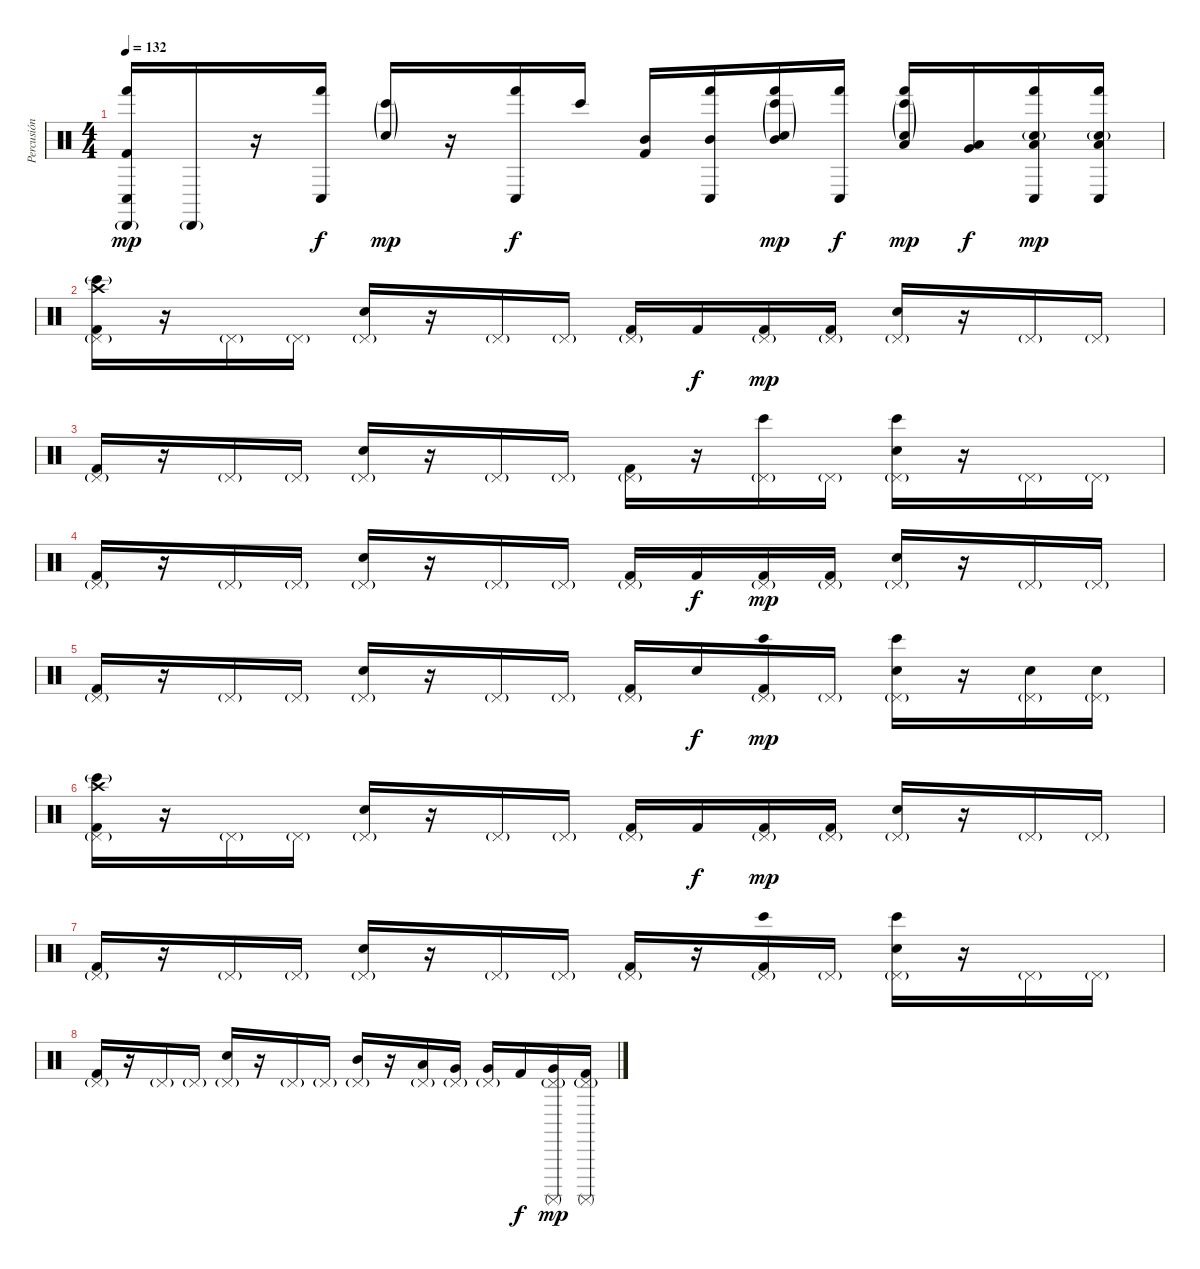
\track ("Percusión" "Percusión") {instrument percussion}
\staff {score}
\articulation defaults
\ts (4 4)
\tempo 132
\clef neutral
\ks c
("Cabasa (hit)"{g} "Conga low (hit)" "Hand (hit)" "Kick (hit) 2").16{dy mp} "Cabasa (hit)"{g}.16 r.16 ("Conga low (hit)" "Hand (hit)").16{dy f} ("Snare (hit) 2"{g} "Bongo High (hit)"{g}).16{dy mp} r.16 ("Conga low (hit)" "Hand (hit)").16{dy f} "Bongo High (hit)".16 ("Mid Tom (hit)" "Kick (hit) 2").16 ("Mid Tom (hit)" "Conga low (hit)" "Hand (hit)").16 ("Mid Tom (hit)" "Hand (hit)" "Bongo High (hit)"{g} "Snare (hit) 2"{g}).16{dy mp} ("Conga low (hit)" "Hand (hit)").16{dy f} ("Low Tom (hit)" "Hand (hit)" "Bongo High (hit)"{g} "Snare (hit) 2"{g}).16{dy mp} ("Very Low Tom (hit)" "Low Tom (hit)").16{dy f} ("Low Tom (hit)" "Conga low (hit)" "Hand (hit)" "Snare (hit) 2"{g}).16{dy mp} ("Low Tom (hit)" "Conga low (hit)" "Hand (hit)" "Snare (hit) 2"{g}).16 |
("Pedal Hi-Hat (hit)"{g} "Kick (hit) 2" "Bongo High (hit)"{g} "Crash high (hit)").16 r.16 "Pedal Hi-Hat (hit)"{g}.16 "Pedal Hi-Hat (hit)"{g}.16 ("Pedal Hi-Hat (hit)"{g} "Electric Snare (hit)").16 r.16 "Pedal Hi-Hat (hit)"{g}.16 "Pedal Hi-Hat (hit)"{g}.16 ("Pedal Hi-Hat (hit)"{g} "Kick (hit) 2").16 "Kick (hit) 2".16{dy f} ("Pedal Hi-Hat (hit)"{g} "Kick (hit) 2").16{dy mp} ("Pedal Hi-Hat (hit)"{g} "Kick (hit) 2").16 ("Pedal Hi-Hat (hit)"{g} "Electric Snare (hit)").16 r.16 "Pedal Hi-Hat (hit)"{g}.16 "Pedal Hi-Hat (hit)"{g}.16 |
("Pedal Hi-Hat (hit)"{g} "Kick (hit) 2").16 r.16 "Pedal Hi-Hat (hit)"{g}.16 "Pedal Hi-Hat (hit)"{g}.16 ("Pedal Hi-Hat (hit)"{g} "Electric Snare (hit)").16 r.16 "Pedal Hi-Hat (hit)"{g}.16 "Pedal Hi-Hat (hit)"{g}.16 ("Pedal Hi-Hat (hit)"{g} "Kick (hit) 2").16 r.16 ("Pedal Hi-Hat (hit)"{g} "Bongo High (hit)").16 "Pedal Hi-Hat (hit)"{g}.16 ("Pedal Hi-Hat (hit)"{g} "Electric Snare (hit)" "Bongo High (hit)").16 r.16 "Pedal Hi-Hat (hit)"{g}.16 "Pedal Hi-Hat (hit)"{g}.16 |
("Pedal Hi-Hat (hit)"{g} "Kick (hit) 2").16 r.16 "Pedal Hi-Hat (hit)"{g}.16 "Pedal Hi-Hat (hit)"{g}.16 ("Pedal Hi-Hat (hit)"{g} "Electric Snare (hit)").16 r.16 "Pedal Hi-Hat (hit)"{g}.16 "Pedal Hi-Hat (hit)"{g}.16 ("Pedal Hi-Hat (hit)"{g} "Kick (hit) 2").16 "Kick (hit) 2".16{dy f} ("Pedal Hi-Hat (hit)"{g} "Kick (hit) 2").16{dy mp} ("Pedal Hi-Hat (hit)"{g} "Kick (hit) 2").16 ("Pedal Hi-Hat (hit)"{g} "Electric Snare (hit)").16 r.16 "Pedal Hi-Hat (hit)"{g}.16 "Pedal Hi-Hat (hit)"{g}.16 |
("Pedal Hi-Hat (hit)"{g} "Kick (hit) 2").16 r.16 "Pedal Hi-Hat (hit)"{g}.16 "Pedal Hi-Hat (hit)"{g}.16 ("Pedal Hi-Hat (hit)"{g} "Electric Snare (hit)").16 r.16 "Pedal Hi-Hat (hit)"{g}.16 "Pedal Hi-Hat (hit)"{g}.16 ("Pedal Hi-Hat (hit)"{g} "Kick (hit) 2").16 "Electric Snare (hit)".16{dy f} ("Pedal Hi-Hat (hit)"{g} "Kick (hit) 2" "Bongo High (hit)").16{dy mp} "Pedal Hi-Hat (hit)"{g}.16 ("Pedal Hi-Hat (hit)"{g} "Electric Snare (hit)" "Bongo High (hit)").16 r.16 ("Pedal Hi-Hat (hit)"{g} "Electric Snare (hit)").16 ("Pedal Hi-Hat (hit)"{g} "Electric Snare (hit)").16 |
("Pedal Hi-Hat (hit)"{g} "Kick (hit) 2" "Bongo High (hit)"{g} "Crash high (hit)").16 r.16 "Pedal Hi-Hat (hit)"{g}.16 "Pedal Hi-Hat (hit)"{g}.16 ("Pedal Hi-Hat (hit)"{g} "Electric Snare (hit)").16 r.16 "Pedal Hi-Hat (hit)"{g}.16 "Pedal Hi-Hat (hit)"{g}.16 ("Pedal Hi-Hat (hit)"{g} "Kick (hit) 2").16 "Kick (hit) 2".16{dy f} ("Pedal Hi-Hat (hit)"{g} "Kick (hit) 2").16{dy mp} ("Pedal Hi-Hat (hit)"{g} "Kick (hit) 2").16 ("Pedal Hi-Hat (hit)"{g} "Electric Snare (hit)").16 r.16 "Pedal Hi-Hat (hit)"{g}.16 "Pedal Hi-Hat (hit)"{g}.16 |
("Pedal Hi-Hat (hit)"{g} "Kick (hit) 2").16 r.16 "Pedal Hi-Hat (hit)"{g}.16 "Pedal Hi-Hat (hit)"{g}.16 ("Pedal Hi-Hat (hit)"{g} "Electric Snare (hit)").16 r.16 "Pedal Hi-Hat (hit)"{g}.16 "Pedal Hi-Hat (hit)"{g}.16 ("Pedal Hi-Hat (hit)"{g} "Kick (hit) 2").16 r.16 ("Pedal Hi-Hat (hit)"{g} "Kick (hit) 2" "Bongo High (hit)").16 "Pedal Hi-Hat (hit)"{g}.16 ("Pedal Hi-Hat (hit)"{g} "Electric Snare (hit)" "Bongo High (hit)").16 r.16 "Pedal Hi-Hat (hit)"{g}.16 "Pedal Hi-Hat (hit)"{g}.16 |
("Pedal Hi-Hat (hit)"{g} "Kick (hit) 2").16 r.16 "Pedal Hi-Hat (hit)"{g}.16 "Pedal Hi-Hat (hit)"{g}.16 ("Pedal Hi-Hat (hit)"{g} "Electric Snare (hit)").16 r.16 "Pedal Hi-Hat (hit)"{g}.16 "Pedal Hi-Hat (hit)"{g}.16 ("Pedal Hi-Hat (hit)"{g} "Mid Tom (hit)").16 r.16 ("Pedal Hi-Hat (hit)"{g} "Low Tom (hit)").16 ("Pedal Hi-Hat (hit)"{g} "Very Low Tom (hit)").16 ("Pedal Hi-Hat (hit)"{g} "Very Low Tom (hit)").16 "Kick (hit) 2".16{dy f} ("Pedal Hi-Hat (hit)"{g} "Very Low Tom (hit)" "Surdo (mute)").16{dy mp} ("Pedal Hi-Hat (hit)"{g} "Kick (hit) 2" "Surdo (mute)").16
